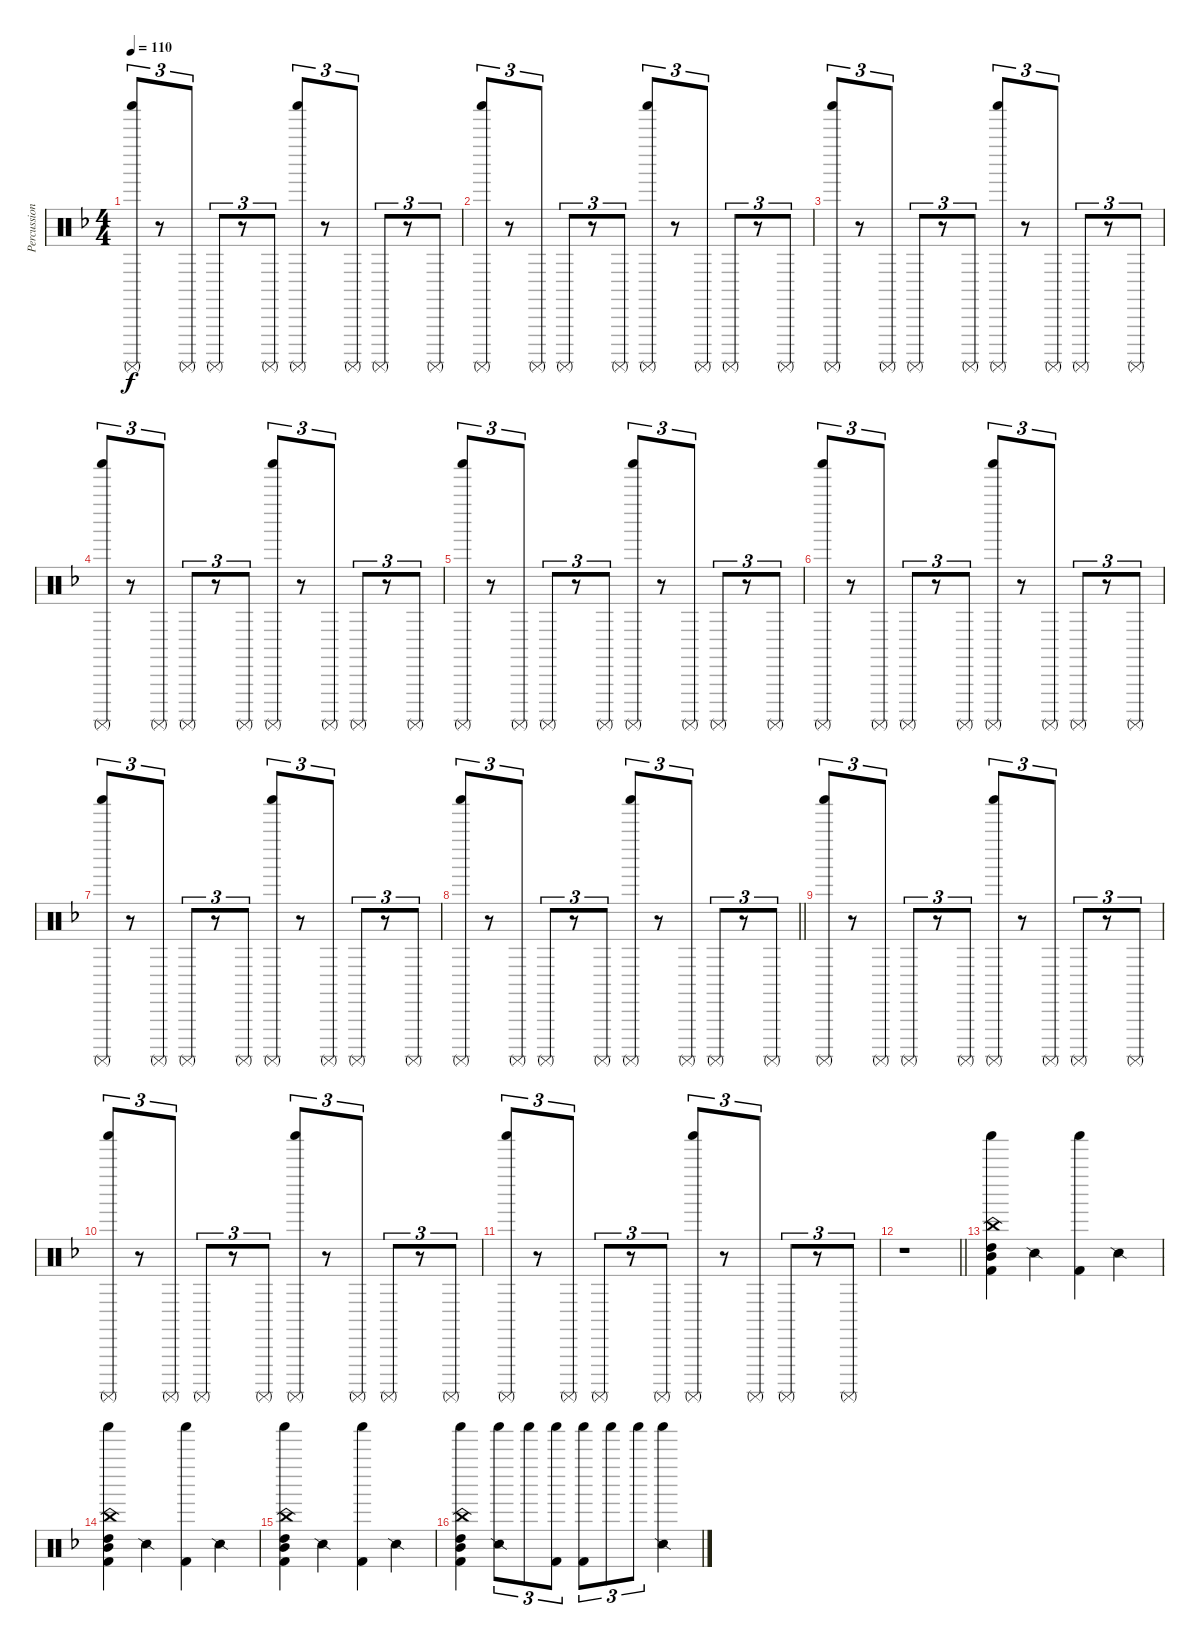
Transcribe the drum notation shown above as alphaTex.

\track ("Percussion" "Percussion") {instrument percussion}
\staff {score}
\articulation defaults
\ts (4 4)
\tempo 110
\clef neutral
\ks f
("Surdo (mute)" "Shaker (hit)").8{tu (3 2) dy f} r.8{tu (3 2)} "Surdo (mute)".8{tu (3 2)} "Surdo (mute)".8{tu (3 2)} r.8{tu (3 2)} "Surdo (mute)".8{tu (3 2)} ("Surdo (mute)" "Shaker (hit)").8{tu (3 2)} r.8{tu (3 2)} "Surdo (mute)".8{tu (3 2)} "Surdo (mute)".8{tu (3 2)} r.8{tu (3 2)} "Surdo (mute)".8{tu (3 2)} |
("Surdo (mute)" "Shaker (hit)").8{tu (3 2)} r.8{tu (3 2)} "Surdo (mute)".8{tu (3 2)} "Surdo (mute)".8{tu (3 2)} r.8{tu (3 2)} "Surdo (mute)".8{tu (3 2)} ("Surdo (mute)" "Shaker (hit)").8{tu (3 2)} r.8{tu (3 2)} "Surdo (mute)".8{tu (3 2)} "Surdo (mute)".8{tu (3 2)} r.8{tu (3 2)} "Surdo (mute)".8{tu (3 2)} |
("Surdo (mute)" "Shaker (hit)").8{tu (3 2)} r.8{tu (3 2)} "Surdo (mute)".8{tu (3 2)} "Surdo (mute)".8{tu (3 2)} r.8{tu (3 2)} "Surdo (mute)".8{tu (3 2)} ("Surdo (mute)" "Shaker (hit)").8{tu (3 2)} r.8{tu (3 2)} "Surdo (mute)".8{tu (3 2)} "Surdo (mute)".8{tu (3 2)} r.8{tu (3 2)} "Surdo (mute)".8{tu (3 2)} |
("Surdo (mute)" "Shaker (hit)").8{tu (3 2)} r.8{tu (3 2)} "Surdo (mute)".8{tu (3 2)} "Surdo (mute)".8{tu (3 2)} r.8{tu (3 2)} "Surdo (mute)".8{tu (3 2)} ("Surdo (mute)" "Shaker (hit)").8{tu (3 2)} r.8{tu (3 2)} "Surdo (mute)".8{tu (3 2)} "Surdo (mute)".8{tu (3 2)} r.8{tu (3 2)} "Surdo (mute)".8{tu (3 2)} |
("Surdo (mute)" "Shaker (hit)").8{tu (3 2)} r.8{tu (3 2)} "Surdo (mute)".8{tu (3 2)} "Surdo (mute)".8{tu (3 2)} r.8{tu (3 2)} "Surdo (mute)".8{tu (3 2)} ("Surdo (mute)" "Shaker (hit)").8{tu (3 2)} r.8{tu (3 2)} "Surdo (mute)".8{tu (3 2)} "Surdo (mute)".8{tu (3 2)} r.8{tu (3 2)} "Surdo (mute)".8{tu (3 2)} |
("Surdo (mute)" "Shaker (hit)").8{tu (3 2)} r.8{tu (3 2)} "Surdo (mute)".8{tu (3 2)} "Surdo (mute)".8{tu (3 2)} r.8{tu (3 2)} "Surdo (mute)".8{tu (3 2)} ("Surdo (mute)" "Shaker (hit)").8{tu (3 2)} r.8{tu (3 2)} "Surdo (mute)".8{tu (3 2)} "Surdo (mute)".8{tu (3 2)} r.8{tu (3 2)} "Surdo (mute)".8{tu (3 2)} |
("Surdo (mute)" "Shaker (hit)").8{tu (3 2)} r.8{tu (3 2)} "Surdo (mute)".8{tu (3 2)} "Surdo (mute)".8{tu (3 2)} r.8{tu (3 2)} "Surdo (mute)".8{tu (3 2)} ("Surdo (mute)" "Shaker (hit)").8{tu (3 2)} r.8{tu (3 2)} "Surdo (mute)".8{tu (3 2)} "Surdo (mute)".8{tu (3 2)} r.8{tu (3 2)} "Surdo (mute)".8{tu (3 2)} |
\barLineRight lightlight
("Surdo (mute)" "Shaker (hit)").8{tu (3 2)} r.8{tu (3 2)} "Surdo (mute)".8{tu (3 2)} "Surdo (mute)".8{tu (3 2)} r.8{tu (3 2)} "Surdo (mute)".8{tu (3 2)} ("Surdo (mute)" "Shaker (hit)").8{tu (3 2)} r.8{tu (3 2)} "Surdo (mute)".8{tu (3 2)} "Surdo (mute)".8{tu (3 2)} r.8{tu (3 2)} "Surdo (mute)".8{tu (3 2)} |
\section ("" "")
("Surdo (mute)" "Shaker (hit)").8{tu (3 2)} r.8{tu (3 2)} "Surdo (mute)".8{tu (3 2)} "Surdo (mute)".8{tu (3 2)} r.8{tu (3 2)} "Surdo (mute)".8{tu (3 2)} ("Surdo (mute)" "Shaker (hit)").8{tu (3 2)} r.8{tu (3 2)} "Surdo (mute)".8{tu (3 2)} "Surdo (mute)".8{tu (3 2)} r.8{tu (3 2)} "Surdo (mute)".8{tu (3 2)} |
("Surdo (mute)" "Shaker (hit)").8{tu (3 2)} r.8{tu (3 2)} "Surdo (mute)".8{tu (3 2)} "Surdo (mute)".8{tu (3 2)} r.8{tu (3 2)} "Surdo (mute)".8{tu (3 2)} ("Surdo (mute)" "Shaker (hit)").8{tu (3 2)} r.8{tu (3 2)} "Surdo (mute)".8{tu (3 2)} "Surdo (mute)".8{tu (3 2)} r.8{tu (3 2)} "Surdo (mute)".8{tu (3 2)} |
("Surdo (mute)" "Shaker (hit)").8{tu (3 2)} r.8{tu (3 2)} "Surdo (mute)".8{tu (3 2)} "Surdo (mute)".8{tu (3 2)} r.8{tu (3 2)} "Surdo (mute)".8{tu (3 2)} ("Surdo (mute)" "Shaker (hit)").8{tu (3 2)} r.8{tu (3 2)} "Surdo (mute)".8{tu (3 2)} "Surdo (mute)".8{tu (3 2)} r.8{tu (3 2)} "Surdo (mute)".8{tu (3 2)} |
\barLineRight lightlight
r.1 |
\section ("" "")
("Mid Tom (hit)" "China (hit)" "Shaker (hit)" "High Tom (hit)" "Kick (hit) 2").4 "Snare (side stick) 2".4 ("Shaker (hit)" "Kick (hit) 2").4 "Snare (side stick) 2".4 |
("Mid Tom (hit)" "China (hit)" "Shaker (hit)" "High Tom (hit)" "Kick (hit) 2").4 "Snare (side stick) 2".4 ("Shaker (hit)" "Kick (hit) 2").4 "Snare (side stick) 2".4 |
("Mid Tom (hit)" "China (hit)" "Shaker (hit)" "High Tom (hit)" "Kick (hit) 2").4 "Snare (side stick) 2".4 ("Shaker (hit)" "Kick (hit) 2").4 "Snare (side stick) 2".4 |
("Mid Tom (hit)" "China (hit)" "Shaker (hit)" "High Tom (hit)" "Kick (hit) 2").4 ("Snare (side stick) 2" "Shaker (hit)").8{tu (3 2)} "Shaker (hit)".8{tu (3 2)} ("Shaker (hit)" "Kick (hit) 2").8{tu (3 2)} ("Shaker (hit)" "Kick (hit) 2").8{tu (3 2)} "Shaker (hit)".8{tu (3 2)} "Shaker (hit)".8{tu (3 2)} ("Snare (side stick) 2" "Shaker (hit)").4
